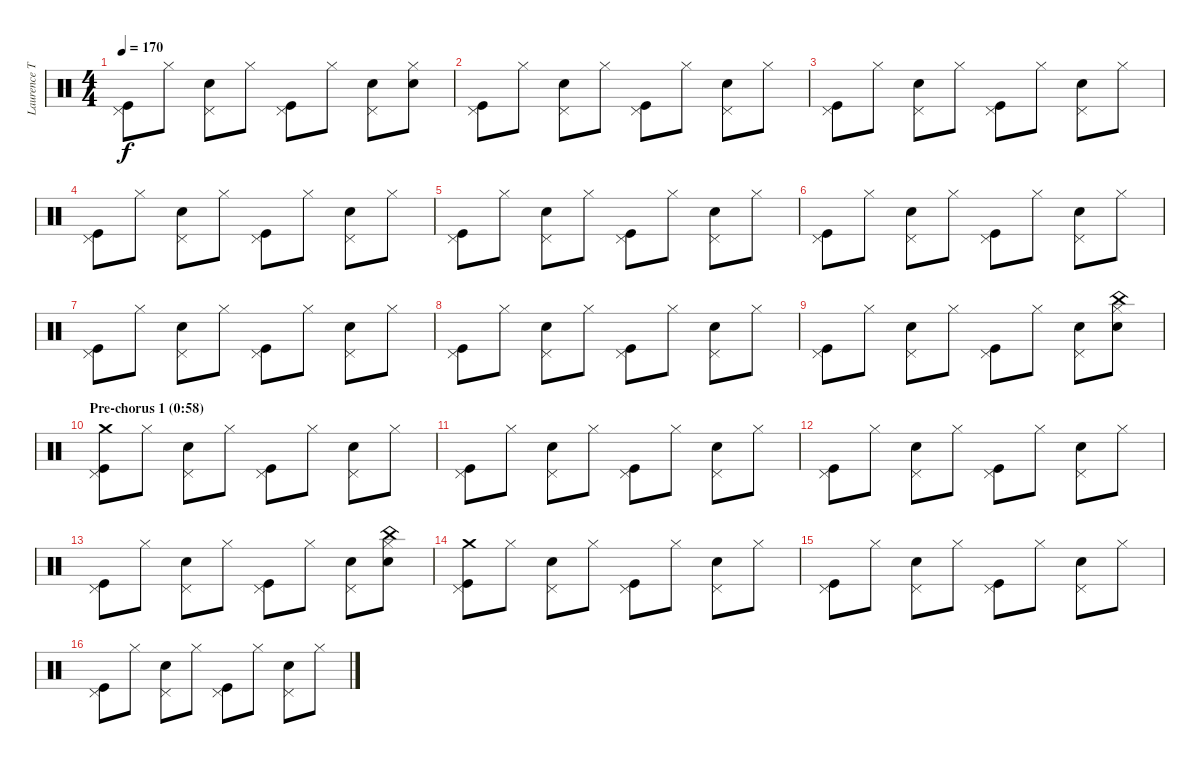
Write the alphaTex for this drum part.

\track ("Laurence Tolhurst (drums)" "Laurence T") {instrument percussion}
\staff {score}
\articulation defaults
\ts (4 4)
\tempo 170
\clef neutral
\ks c
("Pedal Hi-Hat (hit)" "Kick (hit)").8{dy f} "Hi-Hat (closed)".8 ("Pedal Hi-Hat (hit)" "Snare (hit) 2").8 "Hi-Hat (closed)".8 ("Pedal Hi-Hat (hit)" "Kick (hit)").8 "Hi-Hat (closed)".8 ("Pedal Hi-Hat (hit)" "Snare (hit) 2").8 ("Hi-Hat (closed)" "Snare (hit) 2").8 |
("Pedal Hi-Hat (hit)" "Kick (hit)").8 "Hi-Hat (closed)".8 ("Pedal Hi-Hat (hit)" "Snare (hit) 2").8 "Hi-Hat (closed)".8 ("Pedal Hi-Hat (hit)" "Kick (hit)").8 "Hi-Hat (closed)".8 ("Pedal Hi-Hat (hit)" "Snare (hit) 2").8 "Hi-Hat (closed)".8 |
("Pedal Hi-Hat (hit)" "Kick (hit)").8 "Hi-Hat (closed)".8 ("Pedal Hi-Hat (hit)" "Snare (hit) 2").8 "Hi-Hat (closed)".8 ("Pedal Hi-Hat (hit)" "Kick (hit)").8 "Hi-Hat (closed)".8 ("Pedal Hi-Hat (hit)" "Snare (hit) 2").8 "Hi-Hat (closed)".8 |
("Pedal Hi-Hat (hit)" "Kick (hit)").8 "Hi-Hat (closed)".8 ("Pedal Hi-Hat (hit)" "Snare (hit) 2").8 "Hi-Hat (closed)".8 ("Pedal Hi-Hat (hit)" "Kick (hit)").8 "Hi-Hat (closed)".8 ("Pedal Hi-Hat (hit)" "Snare (hit) 2").8 "Hi-Hat (closed)".8 |
("Pedal Hi-Hat (hit)" "Kick (hit)").8 "Hi-Hat (closed)".8 ("Pedal Hi-Hat (hit)" "Snare (hit) 2").8 "Hi-Hat (closed)".8 ("Pedal Hi-Hat (hit)" "Kick (hit)").8 "Hi-Hat (closed)".8 ("Pedal Hi-Hat (hit)" "Snare (hit) 2").8 "Hi-Hat (closed)".8 |
("Pedal Hi-Hat (hit)" "Kick (hit)").8 "Hi-Hat (closed)".8 ("Pedal Hi-Hat (hit)" "Snare (hit) 2").8 "Hi-Hat (closed)".8 ("Pedal Hi-Hat (hit)" "Kick (hit)").8 "Hi-Hat (closed)".8 ("Pedal Hi-Hat (hit)" "Snare (hit) 2").8 "Hi-Hat (closed)".8 |
("Pedal Hi-Hat (hit)" "Kick (hit)").8 "Hi-Hat (closed)".8 ("Pedal Hi-Hat (hit)" "Snare (hit) 2").8 "Hi-Hat (closed)".8 ("Pedal Hi-Hat (hit)" "Kick (hit)").8 "Hi-Hat (closed)".8 ("Pedal Hi-Hat (hit)" "Snare (hit) 2").8 "Hi-Hat (closed)".8 |
("Pedal Hi-Hat (hit)" "Kick (hit)").8 "Hi-Hat (closed)".8 ("Pedal Hi-Hat (hit)" "Snare (hit) 2").8 "Hi-Hat (closed)".8 ("Pedal Hi-Hat (hit)" "Kick (hit)").8 "Hi-Hat (closed)".8 ("Pedal Hi-Hat (hit)" "Snare (hit) 2").8 "Hi-Hat (closed)".8 |
("Pedal Hi-Hat (hit)" "Kick (hit)").8 "Hi-Hat (closed)".8 ("Pedal Hi-Hat (hit)" "Snare (hit) 2").8 "Hi-Hat (closed)".8 ("Pedal Hi-Hat (hit)" "Kick (hit)").8 "Hi-Hat (closed)".8 ("Pedal Hi-Hat (hit)" "Snare (hit) 2").8 ("China (hit)" "Hi-Hat (closed)" "Snare (hit) 2").8 |
\section ("" "Pre-chorus 1 (0:58)")
("Crash medium (hit)" "Pedal Hi-Hat (hit)" "Kick (hit)").8 "Hi-Hat (closed)".8 ("Pedal Hi-Hat (hit)" "Snare (hit) 2").8 "Hi-Hat (closed)".8 ("Pedal Hi-Hat (hit)" "Kick (hit)").8 "Hi-Hat (closed)".8 ("Pedal Hi-Hat (hit)" "Snare (hit) 2").8 "Hi-Hat (closed)".8 |
("Pedal Hi-Hat (hit)" "Kick (hit)").8 "Hi-Hat (closed)".8 ("Pedal Hi-Hat (hit)" "Snare (hit) 2").8 "Hi-Hat (closed)".8 ("Pedal Hi-Hat (hit)" "Kick (hit)").8 "Hi-Hat (closed)".8 ("Pedal Hi-Hat (hit)" "Snare (hit) 2").8 "Hi-Hat (closed)".8 |
("Pedal Hi-Hat (hit)" "Kick (hit)").8 "Hi-Hat (closed)".8 ("Pedal Hi-Hat (hit)" "Snare (hit) 2").8 "Hi-Hat (closed)".8 ("Pedal Hi-Hat (hit)" "Kick (hit)").8 "Hi-Hat (closed)".8 ("Pedal Hi-Hat (hit)" "Snare (hit) 2").8 "Hi-Hat (closed)".8 |
("Pedal Hi-Hat (hit)" "Kick (hit)").8 "Hi-Hat (closed)".8 ("Pedal Hi-Hat (hit)" "Snare (hit) 2").8 "Hi-Hat (closed)".8 ("Pedal Hi-Hat (hit)" "Kick (hit)").8 "Hi-Hat (closed)".8 ("Pedal Hi-Hat (hit)" "Snare (hit) 2").8 ("China (hit)" "Hi-Hat (closed)" "Snare (hit) 2").8 |
("Crash medium (hit)" "Pedal Hi-Hat (hit)" "Kick (hit)").8 "Hi-Hat (closed)".8 ("Pedal Hi-Hat (hit)" "Snare (hit) 2").8 "Hi-Hat (closed)".8 ("Pedal Hi-Hat (hit)" "Kick (hit)").8 "Hi-Hat (closed)".8 ("Pedal Hi-Hat (hit)" "Snare (hit) 2").8 "Hi-Hat (closed)".8 |
("Pedal Hi-Hat (hit)" "Kick (hit)").8 "Hi-Hat (closed)".8 ("Pedal Hi-Hat (hit)" "Snare (hit) 2").8 "Hi-Hat (closed)".8 ("Pedal Hi-Hat (hit)" "Kick (hit)").8 "Hi-Hat (closed)".8 ("Pedal Hi-Hat (hit)" "Snare (hit) 2").8 "Hi-Hat (closed)".8 |
("Pedal Hi-Hat (hit)" "Kick (hit)").8 "Hi-Hat (closed)".8 ("Pedal Hi-Hat (hit)" "Snare (hit) 2").8 "Hi-Hat (closed)".8 ("Pedal Hi-Hat (hit)" "Kick (hit)").8 "Hi-Hat (closed)".8 ("Pedal Hi-Hat (hit)" "Snare (hit) 2").8 "Hi-Hat (closed)".8
